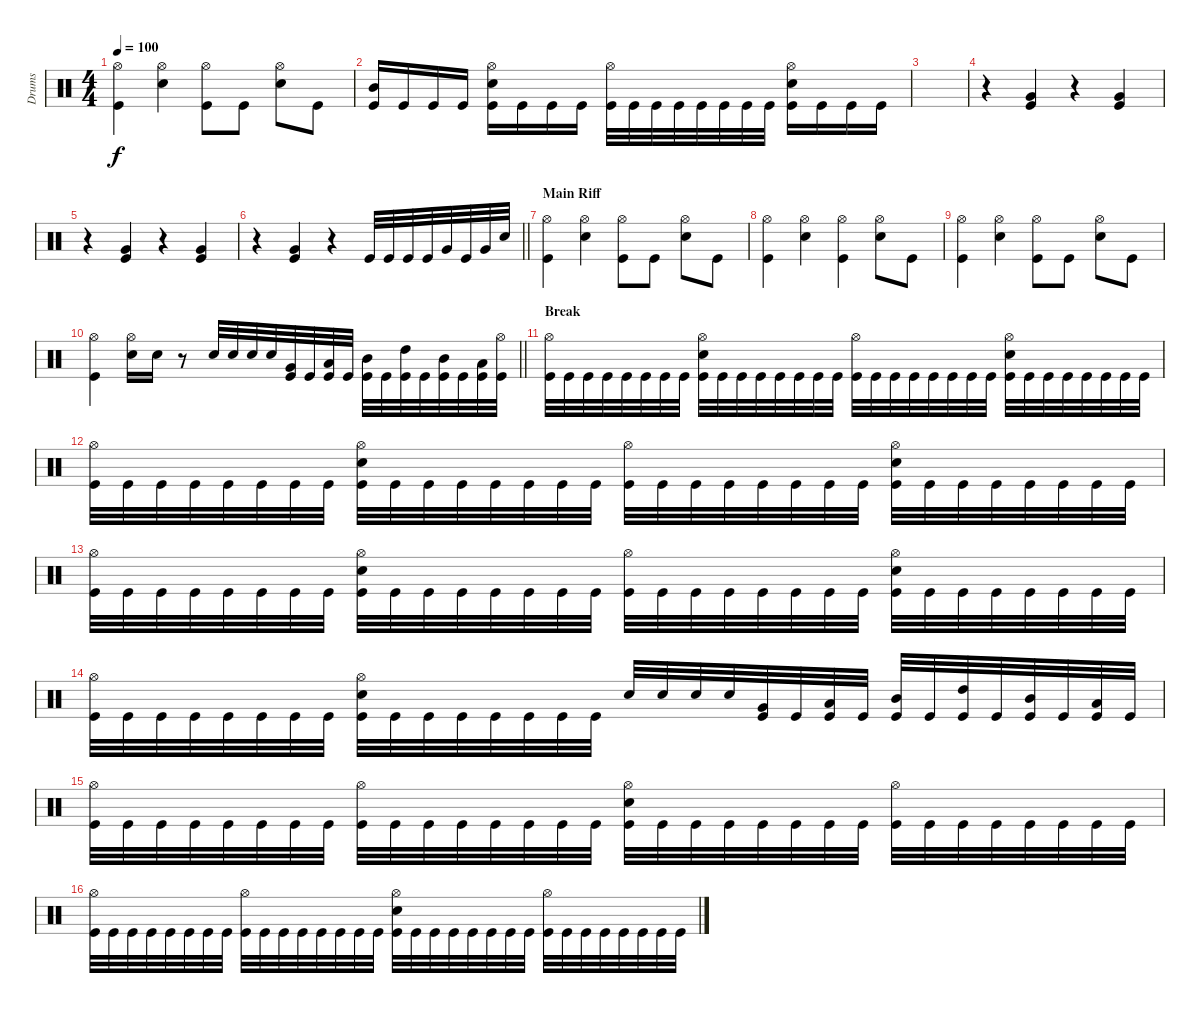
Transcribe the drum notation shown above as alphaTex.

\track ("Drums" "Drums") {instrument percussion}
\staff {score}
\articulation defaults
\ts (4 4)
\tempo 100
\clef neutral
\ks c
("Hi-Hat (open)" "Kick (hit)").4{dy f} ("Hi-Hat (open)" "Electric Snare (hit)").4 ("Hi-Hat (open)" "Kick (hit)").8 "Kick (hit)".8 ("Hi-Hat (open)" "Electric Snare (hit)").8 "Kick (hit)".8 |
("Mid Tom (hit)" "Kick (hit)").16 "Kick (hit)".16 "Kick (hit)".16 "Kick (hit)".16 ("Hi-Hat (open)" "Electric Snare (hit)" "Kick (hit)").16 "Kick (hit)".16 "Kick (hit)".16 "Kick (hit)".16 ("Hi-Hat (open)" "Kick (hit)").32 "Kick (hit)".32 "Kick (hit)".32 "Kick (hit)".32 "Kick (hit)".32 "Kick (hit)".32 "Kick (hit)".32 "Kick (hit)".32 ("Hi-Hat (open)" "Electric Snare (hit)" "Kick (hit)").16 "Kick (hit)".16 "Kick (hit)".16 "Kick (hit)".16 |
|
r.4 ("Very Low Tom (hit)" "Kick (hit)").4 r.4 ("Very Low Tom (hit)" "Kick (hit)").4 |
r.4 ("Very Low Tom (hit)" "Kick (hit)").4 r.4 ("Very Low Tom (hit)" "Kick (hit)").4 |
\barLineRight lightlight
r.4 ("Kick (hit)" "Very Low Tom (hit)").4 r.4 "Kick (hit)".32 "Kick (hit)".32 "Kick (hit)".32 "Kick (hit)".32 "Very Low Tom (hit)".32 "Kick (hit)".32 "Very Low Tom (hit)".32 "Electric Snare (hit)".32 |
\section ("" "Main Riff")
("Hi-Hat (open)" "Kick (hit)").4 ("Hi-Hat (open)" "Electric Snare (hit)").4 ("Hi-Hat (open)" "Kick (hit)").8 "Kick (hit)".8 ("Hi-Hat (open)" "Electric Snare (hit)").8 "Kick (hit)".8 |
("Hi-Hat (open)" "Kick (hit)").4 ("Hi-Hat (open)" "Electric Snare (hit)").4 ("Hi-Hat (open)" "Kick (hit)").4 ("Hi-Hat (open)" "Electric Snare (hit)").8 "Kick (hit)".8 |
("Hi-Hat (open)" "Kick (hit)").4 ("Hi-Hat (open)" "Electric Snare (hit)").4 ("Hi-Hat (open)" "Kick (hit)").8 "Kick (hit)".8 ("Hi-Hat (open)" "Electric Snare (hit)").8 "Kick (hit)".8 |
\barLineRight lightlight
("Hi-Hat (open)" "Kick (hit)").4 ("Hi-Hat (open)" "Electric Snare (hit)").16 "Electric Snare (hit)".16 r.8 "Electric Snare (hit)".32 "Electric Snare (hit)".32 "Electric Snare (hit)".32 "Electric Snare (hit)".32 ("Very Low Tom (hit)" "Kick (hit)").32 "Kick (hit)".32 ("Low Tom (hit)" "Kick (hit)").32 "Kick (hit)".32 ("Mid Tom (hit)" "Kick (hit)").32 "Kick (hit)".32 ("High Tom (hit)" "Kick (hit)").32 "Kick (hit)".32 ("Mid Tom (hit)" "Kick (hit)").32 "Kick (hit)".32 ("Low Tom (hit)" "Kick (hit)").32 ("Hi-Hat (open)" "Kick (hit)").32 |
\section ("" "Break")
("Hi-Hat (open)" "Kick (hit)").32 "Kick (hit)".32 "Kick (hit)".32 "Kick (hit)".32 "Kick (hit)".32 "Kick (hit)".32 "Kick (hit)".32 "Kick (hit)".32 ("Hi-Hat (open)" "Electric Snare (hit)" "Kick (hit)").32 "Kick (hit)".32 "Kick (hit)".32 "Kick (hit)".32 "Kick (hit)".32 "Kick (hit)".32 "Kick (hit)".32 "Kick (hit)".32 ("Hi-Hat (open)" "Kick (hit)").32 "Kick (hit)".32 "Kick (hit)".32 "Kick (hit)".32 "Kick (hit)".32 "Kick (hit)".32 "Kick (hit)".32 "Kick (hit)".32 ("Hi-Hat (open)" "Electric Snare (hit)" "Kick (hit)").32 "Kick (hit)".32 "Kick (hit)".32 "Kick (hit)".32 "Kick (hit)".32 "Kick (hit)".32 "Kick (hit)".32 "Kick (hit)".32 |
("Hi-Hat (open)" "Kick (hit)").32 "Kick (hit)".32 "Kick (hit)".32 "Kick (hit)".32 "Kick (hit)".32 "Kick (hit)".32 "Kick (hit)".32 "Kick (hit)".32 ("Hi-Hat (open)" "Electric Snare (hit)" "Kick (hit)").32 "Kick (hit)".32 "Kick (hit)".32 "Kick (hit)".32 "Kick (hit)".32 "Kick (hit)".32 "Kick (hit)".32 "Kick (hit)".32 ("Hi-Hat (open)" "Kick (hit)").32 "Kick (hit)".32 "Kick (hit)".32 "Kick (hit)".32 "Kick (hit)".32 "Kick (hit)".32 "Kick (hit)".32 "Kick (hit)".32 ("Hi-Hat (open)" "Electric Snare (hit)" "Kick (hit)").32 "Kick (hit)".32 "Kick (hit)".32 "Kick (hit)".32 "Kick (hit)".32 "Kick (hit)".32 "Kick (hit)".32 "Kick (hit)".32 |
("Hi-Hat (open)" "Kick (hit)").32 "Kick (hit)".32 "Kick (hit)".32 "Kick (hit)".32 "Kick (hit)".32 "Kick (hit)".32 "Kick (hit)".32 "Kick (hit)".32 ("Hi-Hat (open)" "Electric Snare (hit)" "Kick (hit)").32 "Kick (hit)".32 "Kick (hit)".32 "Kick (hit)".32 "Kick (hit)".32 "Kick (hit)".32 "Kick (hit)".32 "Kick (hit)".32 ("Hi-Hat (open)" "Kick (hit)").32 "Kick (hit)".32 "Kick (hit)".32 "Kick (hit)".32 "Kick (hit)".32 "Kick (hit)".32 "Kick (hit)".32 "Kick (hit)".32 ("Hi-Hat (open)" "Electric Snare (hit)" "Kick (hit)").32 "Kick (hit)".32 "Kick (hit)".32 "Kick (hit)".32 "Kick (hit)".32 "Kick (hit)".32 "Kick (hit)".32 "Kick (hit)".32 |
("Hi-Hat (open)" "Kick (hit)").32 "Kick (hit)".32 "Kick (hit)".32 "Kick (hit)".32 "Kick (hit)".32 "Kick (hit)".32 "Kick (hit)".32 "Kick (hit)".32 ("Hi-Hat (open)" "Electric Snare (hit)" "Kick (hit)").32 "Kick (hit)".32 "Kick (hit)".32 "Kick (hit)".32 "Kick (hit)".32 "Kick (hit)".32 "Kick (hit)".32 "Kick (hit)".32 "Electric Snare (hit)".32 "Electric Snare (hit)".32 "Electric Snare (hit)".32 "Electric Snare (hit)".32 ("Very Low Tom (hit)" "Kick (hit)").32 "Kick (hit)".32 ("Low Tom (hit)" "Kick (hit)").32 "Kick (hit)".32 ("Mid Tom (hit)" "Kick (hit)").32 "Kick (hit)".32 ("High Tom (hit)" "Kick (hit)").32 "Kick (hit)".32 ("Mid Tom (hit)" "Kick (hit)").32 "Kick (hit)".32 ("Low Tom (hit)" "Kick (hit)").32 "Kick (hit)".32 |
("Hi-Hat (open)" "Kick (hit)").32 "Kick (hit)".32 "Kick (hit)".32 "Kick (hit)".32 "Kick (hit)".32 "Kick (hit)".32 "Kick (hit)".32 "Kick (hit)".32 ("Hi-Hat (open)" "Kick (hit)").32 "Kick (hit)".32 "Kick (hit)".32 "Kick (hit)".32 "Kick (hit)".32 "Kick (hit)".32 "Kick (hit)".32 "Kick (hit)".32 ("Hi-Hat (open)" "Electric Snare (hit)" "Kick (hit)").32 "Kick (hit)".32 "Kick (hit)".32 "Kick (hit)".32 "Kick (hit)".32 "Kick (hit)".32 "Kick (hit)".32 "Kick (hit)".32 ("Hi-Hat (open)" "Kick (hit)").32 "Kick (hit)".32 "Kick (hit)".32 "Kick (hit)".32 "Kick (hit)".32 "Kick (hit)".32 "Kick (hit)".32 "Kick (hit)".32 |
("Hi-Hat (open)" "Kick (hit)").32 "Kick (hit)".32 "Kick (hit)".32 "Kick (hit)".32 "Kick (hit)".32 "Kick (hit)".32 "Kick (hit)".32 "Kick (hit)".32 ("Hi-Hat (open)" "Kick (hit)").32 "Kick (hit)".32 "Kick (hit)".32 "Kick (hit)".32 "Kick (hit)".32 "Kick (hit)".32 "Kick (hit)".32 "Kick (hit)".32 ("Hi-Hat (open)" "Electric Snare (hit)" "Kick (hit)").32 "Kick (hit)".32 "Kick (hit)".32 "Kick (hit)".32 "Kick (hit)".32 "Kick (hit)".32 "Kick (hit)".32 "Kick (hit)".32 ("Hi-Hat (open)" "Kick (hit)").32 "Kick (hit)".32 "Kick (hit)".32 "Kick (hit)".32 "Kick (hit)".32 "Kick (hit)".32 "Kick (hit)".32 "Kick (hit)".32
